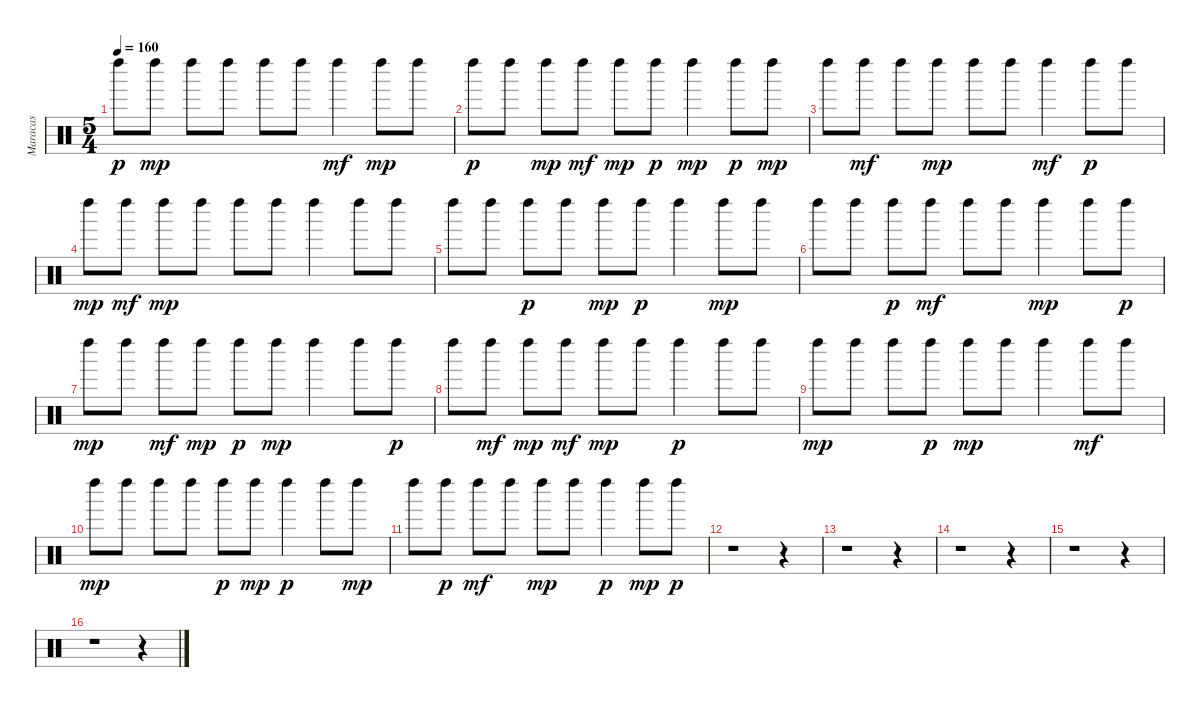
\track ("Maracas" "Maracas") {instrument percussion}
\staff {score}
\articulation defaults
\ts (5 4)
\tempo 160
\clef neutral
\ks c "Left Maraca (hit)".8{dy p} "Left Maraca (hit)".8{dy mp} "Left Maraca (hit)".8 "Left Maraca (hit)".8 "Left Maraca (hit)".8 "Left Maraca (hit)".8 "Left Maraca (hit)".4{dy mf} "Left Maraca (hit)".8{dy mp} "Left Maraca (hit)".8
|
"Left Maraca (hit)".8{dy p} "Left Maraca (hit)".8 "Left Maraca (hit)".8{dy mp} "Left Maraca (hit)".8{dy mf} "Left Maraca (hit)".8{dy mp} "Left Maraca (hit)".8{dy p} "Left Maraca (hit)".4{dy mp} "Left Maraca (hit)".8{dy p} "Left Maraca (hit)".8{dy mp} |
"Left Maraca (hit)".8 "Left Maraca (hit)".8{dy mf} "Left Maraca (hit)".8 "Left Maraca (hit)".8{dy mp} "Left Maraca (hit)".8 "Left Maraca (hit)".8 "Left Maraca (hit)".4{dy mf} "Left Maraca (hit)".8{dy p} "Left Maraca (hit)".8 |
"Left Maraca (hit)".8{dy mp} "Left Maraca (hit)".8{dy mf} "Left Maraca (hit)".8{dy mp} "Left Maraca (hit)".8 "Left Maraca (hit)".8 "Left Maraca (hit)".8 "Left Maraca (hit)".4 "Left Maraca (hit)".8 "Left Maraca (hit)".8 |
"Left Maraca (hit)".8 "Left Maraca (hit)".8 "Left Maraca (hit)".8{dy p} "Left Maraca (hit)".8 "Left Maraca (hit)".8{dy mp} "Left Maraca (hit)".8{dy p} "Left Maraca (hit)".4 "Left Maraca (hit)".8{dy mp} "Left Maraca (hit)".8 |
"Left Maraca (hit)".8 "Left Maraca (hit)".8 "Left Maraca (hit)".8{dy p} "Left Maraca (hit)".8{dy mf} "Left Maraca (hit)".8 "Left Maraca (hit)".8 "Left Maraca (hit)".4{dy mp} "Left Maraca (hit)".8 "Left Maraca (hit)".8{dy p} |
"Left Maraca (hit)".8{dy mp} "Left Maraca (hit)".8 "Left Maraca (hit)".8{dy mf} "Left Maraca (hit)".8{dy mp} "Left Maraca (hit)".8{dy p} "Left Maraca (hit)".8{dy mp} "Left Maraca (hit)".4 "Left Maraca (hit)".8 "Left Maraca (hit)".8{dy p} |
"Left Maraca (hit)".8 "Left Maraca (hit)".8{dy mf} "Left Maraca (hit)".8{dy mp} "Left Maraca (hit)".8{dy mf} "Left Maraca (hit)".8{dy mp} "Left Maraca (hit)".8 "Left Maraca (hit)".4{dy p} "Left Maraca (hit)".8 "Left Maraca (hit)".8 |
"Left Maraca (hit)".8{dy mp} "Left Maraca (hit)".8 "Left Maraca (hit)".8 "Left Maraca (hit)".8{dy p} "Left Maraca (hit)".8{dy mp} "Left Maraca (hit)".8 "Left Maraca (hit)".4 "Left Maraca (hit)".8{dy mf} "Left Maraca (hit)".8 |
"Left Maraca (hit)".8{dy mp} "Left Maraca (hit)".8 "Left Maraca (hit)".8 "Left Maraca (hit)".8 "Left Maraca (hit)".8{dy p} "Left Maraca (hit)".8{dy mp} "Left Maraca (hit)".4{dy p} "Left Maraca (hit)".8 "Left Maraca (hit)".8{dy mp} |
"Left Maraca (hit)".8 "Left Maraca (hit)".8{dy p} "Left Maraca (hit)".8{dy mf} "Left Maraca (hit)".8 "Left Maraca (hit)".8{dy mp} "Left Maraca (hit)".8 "Left Maraca (hit)".4{dy p} "Left Maraca (hit)".8{dy mp} "Left Maraca (hit)".8{dy p} |
r.1 r.4 |
r.1 r.4 |
r.1 r.4 |
r.1 r.4 |
r.1 r.4
